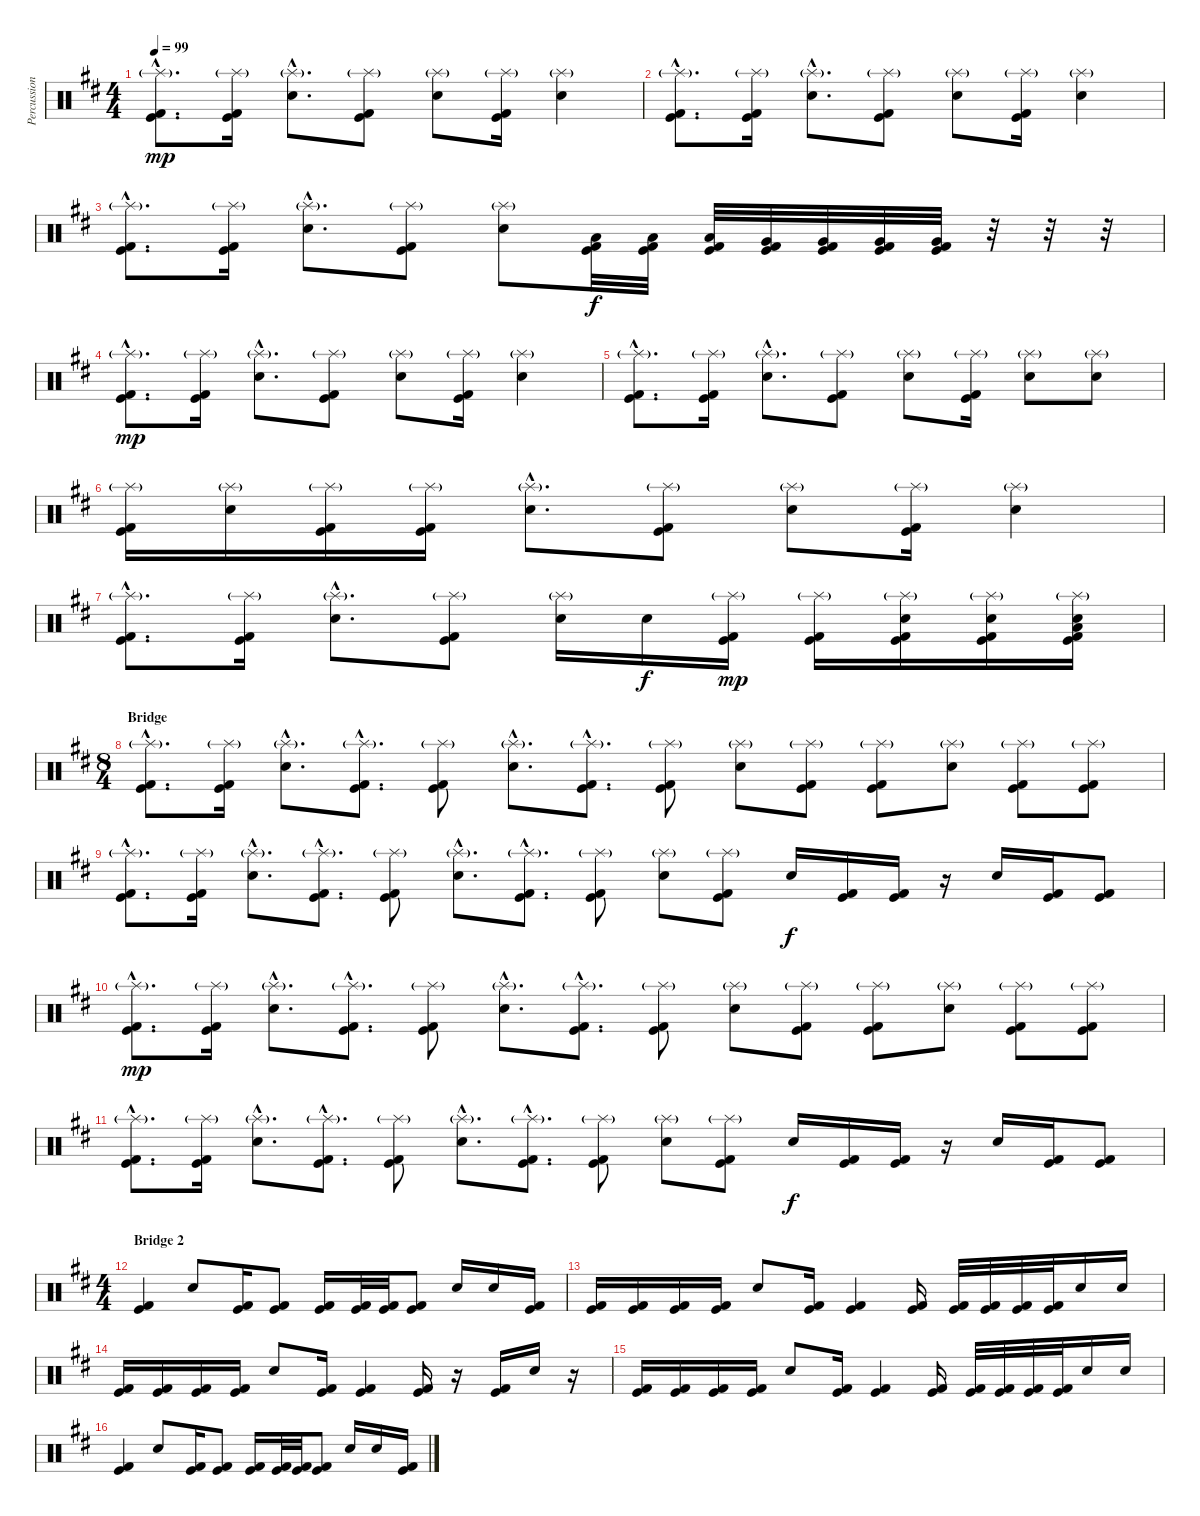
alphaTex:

\track ("Percussion" "Percussion") {instrument percussion}
\staff {score}
\articulation defaults
\ts (4 4)
\tempo 99
\clef neutral
\ks d
("Splash (hit)"{g hac} "Kick (hit)"{hac} "Kick (hit) 2"{hac}).8{d dy mp} ("Splash (hit)"{g} "Kick (hit)" "Kick (hit) 2").16 ("Splash (hit)"{g hac} "Electric Snare (hit)"{hac}).8{d} ("Splash (hit)"{g} "Kick (hit)" "Kick (hit) 2").8 ("Splash (hit)"{g} "Electric Snare (hit)").8 ("Splash (hit)"{g} "Kick (hit)" "Kick (hit) 2").16 ("Splash (hit)"{g} "Electric Snare (hit)").4 |
("Splash (hit)"{g hac} "Kick (hit)"{hac} "Kick (hit) 2"{hac}).8{d} ("Splash (hit)"{g} "Kick (hit)" "Kick (hit) 2").16 ("Splash (hit)"{g hac} "Electric Snare (hit)"{hac}).8{d} ("Splash (hit)"{g} "Kick (hit)" "Kick (hit) 2").8 ("Splash (hit)"{g} "Electric Snare (hit)").8 ("Splash (hit)"{g} "Kick (hit)" "Kick (hit) 2").16 ("Splash (hit)"{g} "Electric Snare (hit)").4 |
("Splash (hit)"{g hac} "Kick (hit)"{hac} "Kick (hit) 2"{hac}).8{d} ("Splash (hit)"{g} "Kick (hit)" "Kick (hit) 2").16 ("Splash (hit)"{g hac} "Electric Snare (hit)"{hac}).8{d} ("Splash (hit)"{g} "Kick (hit)" "Kick (hit) 2").8 ("Splash (hit)"{g} "Electric Snare (hit)").8 ("Low Tom (hit)" "Kick (hit)" "Kick (hit) 2").32{dy f} ("Low Tom (hit)" "Kick (hit)" "Kick (hit) 2").32 ("Low Tom (hit)" "Kick (hit)" "Kick (hit) 2").32 ("Very Low Tom (hit)" "Kick (hit)" "Kick (hit) 2").32 ("Very Low Tom (hit)" "Kick (hit)" "Kick (hit) 2").32 ("Very Low Tom (hit)" "Kick (hit)" "Kick (hit) 2").32 ("Very Low Tom (hit)" "Kick (hit)" "Kick (hit) 2").32 r.32 r.32 r.32 |
("Splash (hit)"{g hac} "Kick (hit)"{hac} "Kick (hit) 2"{hac}).8{d dy mp} ("Splash (hit)"{g} "Kick (hit)" "Kick (hit) 2").16 ("Splash (hit)"{g hac} "Electric Snare (hit)"{hac}).8{d} ("Splash (hit)"{g} "Kick (hit)" "Kick (hit) 2").8 ("Splash (hit)"{g} "Electric Snare (hit)").8 ("Splash (hit)"{g} "Kick (hit)" "Kick (hit) 2").16 ("Splash (hit)"{g} "Electric Snare (hit)").4 |
("Splash (hit)"{g hac} "Kick (hit)"{hac} "Kick (hit) 2"{hac}).8{d} ("Splash (hit)"{g} "Kick (hit)" "Kick (hit) 2").16 ("Splash (hit)"{g hac} "Electric Snare (hit)"{hac}).8{d} ("Splash (hit)"{g} "Kick (hit)" "Kick (hit) 2").8 ("Splash (hit)"{g} "Electric Snare (hit)").8 ("Splash (hit)"{g} "Kick (hit)" "Kick (hit) 2").16 ("Splash (hit)"{g} "Electric Snare (hit)").8 ("Splash (hit)"{g} "Electric Snare (hit)").8 |
("Splash (hit)"{g} "Kick (hit)" "Kick (hit) 2").16 ("Splash (hit)"{g} "Electric Snare (hit)").16 ("Splash (hit)"{g} "Kick (hit)" "Kick (hit) 2").16 ("Splash (hit)"{g} "Kick (hit)" "Kick (hit) 2").16 ("Splash (hit)"{g hac} "Electric Snare (hit)"{hac}).8{d} ("Splash (hit)"{g} "Kick (hit)" "Kick (hit) 2").8 ("Splash (hit)"{g} "Electric Snare (hit)").8 ("Splash (hit)"{g} "Kick (hit)" "Kick (hit) 2").16 ("Splash (hit)"{g} "Electric Snare (hit)").4 |
("Splash (hit)"{g hac} "Kick (hit)"{hac} "Kick (hit) 2"{hac}).8{d} ("Splash (hit)"{g} "Kick (hit)" "Kick (hit) 2").16 ("Splash (hit)"{g hac} "Electric Snare (hit)"{hac}).8{d} ("Splash (hit)"{g} "Kick (hit)" "Kick (hit) 2").8 ("Splash (hit)"{g} "Electric Snare (hit)").16 "Electric Snare (hit)".16{dy f} ("Splash (hit)"{g} "Kick (hit)" "Kick (hit) 2").16{dy mp} ("Splash (hit)"{g} "Kick (hit)" "Kick (hit) 2").16 ("Splash (hit)"{g} "Electric Snare (hit)" "Kick (hit)" "Kick (hit) 2").16 ("Splash (hit)"{g} "Electric Snare (hit)" "Kick (hit)" "Kick (hit) 2").16 ("Splash (hit)"{g} "Low Tom (hit)" "Electric Snare (hit)" "Kick (hit)" "Kick (hit) 2").16 |
\ts (8 4)
\section ("" "Bridge")
("Splash (hit)"{g hac} "Kick (hit)"{hac} "Kick (hit) 2"{hac}).8{d} ("Splash (hit)"{g} "Kick (hit)" "Kick (hit) 2").16 ("Splash (hit)"{g hac} "Electric Snare (hit)"{hac}).8{d} ("Splash (hit)"{g hac} "Kick (hit)"{hac} "Kick (hit) 2"{hac}).8{d} ("Splash (hit)"{g} "Kick (hit)" "Kick (hit) 2").8 ("Splash (hit)"{g hac} "Electric Snare (hit)"{hac}).8{d} ("Splash (hit)"{g hac} "Kick (hit)"{hac} "Kick (hit) 2"{hac}).8{d} ("Splash (hit)"{g} "Kick (hit)" "Kick (hit) 2").8 ("Splash (hit)"{g} "Electric Snare (hit)").8 ("Splash (hit)"{g} "Kick (hit)" "Kick (hit) 2").8 ("Splash (hit)"{g} "Kick (hit)" "Kick (hit) 2").8 ("Splash (hit)"{g} "Electric Snare (hit)").8 ("Splash (hit)"{g} "Kick (hit)" "Kick (hit) 2").8 ("Splash (hit)"{g} "Kick (hit)" "Kick (hit) 2").8 |
("Splash (hit)"{g hac} "Kick (hit)"{hac} "Kick (hit) 2"{hac}).8{d} ("Splash (hit)"{g} "Kick (hit)" "Kick (hit) 2").16 ("Splash (hit)"{g hac} "Electric Snare (hit)"{hac}).8{d} ("Splash (hit)"{g hac} "Kick (hit)"{hac} "Kick (hit) 2"{hac}).8{d} ("Splash (hit)"{g} "Kick (hit)" "Kick (hit) 2").8 ("Splash (hit)"{g hac} "Electric Snare (hit)"{hac}).8{d} ("Splash (hit)"{g hac} "Kick (hit)"{hac} "Kick (hit) 2"{hac}).8{d} ("Splash (hit)"{g} "Kick (hit)" "Kick (hit) 2").8 ("Splash (hit)"{g} "Electric Snare (hit)").8 ("Splash (hit)"{g} "Kick (hit)" "Kick (hit) 2").8 "Electric Snare (hit)".16{dy f} ("Kick (hit)" "Kick (hit) 2").16 ("Kick (hit)" "Kick (hit) 2").16 r.16 "Electric Snare (hit)".16 ("Kick (hit)" "Kick (hit) 2").16 ("Kick (hit)" "Kick (hit) 2").8 |
("Splash (hit)"{g hac} "Kick (hit)"{hac} "Kick (hit) 2"{hac}).8{d dy mp} ("Splash (hit)"{g} "Kick (hit)" "Kick (hit) 2").16 ("Splash (hit)"{g hac} "Electric Snare (hit)"{hac}).8{d} ("Splash (hit)"{g hac} "Kick (hit)"{hac} "Kick (hit) 2"{hac}).8{d} ("Splash (hit)"{g} "Kick (hit)" "Kick (hit) 2").8 ("Splash (hit)"{g hac} "Electric Snare (hit)"{hac}).8{d} ("Splash (hit)"{g hac} "Kick (hit)"{hac} "Kick (hit) 2"{hac}).8{d} ("Splash (hit)"{g} "Kick (hit)" "Kick (hit) 2").8 ("Splash (hit)"{g} "Electric Snare (hit)").8 ("Splash (hit)"{g} "Kick (hit)" "Kick (hit) 2").8 ("Splash (hit)"{g} "Kick (hit)" "Kick (hit) 2").8 ("Splash (hit)"{g} "Electric Snare (hit)").8 ("Splash (hit)"{g} "Kick (hit)" "Kick (hit) 2").8 ("Splash (hit)"{g} "Kick (hit)" "Kick (hit) 2").8 |
("Splash (hit)"{g hac} "Kick (hit)"{hac} "Kick (hit) 2"{hac}).8{d} ("Splash (hit)"{g} "Kick (hit)" "Kick (hit) 2").16 ("Splash (hit)"{g hac} "Electric Snare (hit)"{hac}).8{d} ("Splash (hit)"{g hac} "Kick (hit)"{hac} "Kick (hit) 2"{hac}).8{d} ("Splash (hit)"{g} "Kick (hit)" "Kick (hit) 2").8 ("Splash (hit)"{g hac} "Electric Snare (hit)"{hac}).8{d} ("Splash (hit)"{g hac} "Kick (hit)"{hac} "Kick (hit) 2"{hac}).8{d} ("Splash (hit)"{g} "Kick (hit)" "Kick (hit) 2").8 ("Splash (hit)"{g} "Electric Snare (hit)").8 ("Splash (hit)"{g} "Kick (hit)" "Kick (hit) 2").8 "Electric Snare (hit)".16{dy f} ("Kick (hit)" "Kick (hit) 2").16 ("Kick (hit)" "Kick (hit) 2").16 r.16 "Electric Snare (hit)".16 ("Kick (hit)" "Kick (hit) 2").16 ("Kick (hit)" "Kick (hit) 2").8 |
\ts (4 4)
\section ("" "Bridge 2")
("Kick (hit)" "Kick (hit) 2").4 "Electric Snare (hit)".8 ("Kick (hit)" "Kick (hit) 2").16 ("Kick (hit)" "Kick (hit) 2").8 ("Kick (hit)" "Kick (hit) 2").16 ("Kick (hit)" "Kick (hit) 2").32 ("Kick (hit)" "Kick (hit) 2").32 ("Kick (hit)" "Kick (hit) 2").8 "Electric Snare (hit)".16 "Electric Snare (hit)".16 ("Kick (hit)" "Kick (hit) 2").16 |
("Kick (hit)" "Kick (hit) 2").16 ("Kick (hit)" "Kick (hit) 2").16 ("Kick (hit)" "Kick (hit) 2").16 ("Kick (hit)" "Kick (hit) 2").16 "Electric Snare (hit)".8 ("Kick (hit)" "Kick (hit) 2").16 ("Kick (hit)" "Kick (hit) 2").4 ("Kick (hit)" "Kick (hit) 2").16 ("Kick (hit)" "Kick (hit) 2").32 ("Kick (hit)" "Kick (hit) 2").32 ("Kick (hit)" "Kick (hit) 2").32 ("Kick (hit) 2" "Kick (hit)").32 "Electric Snare (hit)".16 "Electric Snare (hit)".16 |
("Kick (hit)" "Kick (hit) 2").16 ("Kick (hit)" "Kick (hit) 2").16 ("Kick (hit)" "Kick (hit) 2").16 ("Kick (hit)" "Kick (hit) 2").16 "Electric Snare (hit)".8 ("Kick (hit)" "Kick (hit) 2").16 ("Kick (hit)" "Kick (hit) 2").4 ("Kick (hit)" "Kick (hit) 2").16 r.16 ("Kick (hit) 2" "Kick (hit)").16 "Electric Snare (hit)".16 r.16 |
("Kick (hit)" "Kick (hit) 2").16 ("Kick (hit)" "Kick (hit) 2").16 ("Kick (hit)" "Kick (hit) 2").16 ("Kick (hit)" "Kick (hit) 2").16 "Electric Snare (hit)".8 ("Kick (hit)" "Kick (hit) 2").16 ("Kick (hit)" "Kick (hit) 2").4 ("Kick (hit)" "Kick (hit) 2").16 ("Kick (hit)" "Kick (hit) 2").32 ("Kick (hit)" "Kick (hit) 2").32 ("Kick (hit)" "Kick (hit) 2").32 ("Kick (hit) 2" "Kick (hit)").32 "Electric Snare (hit)".16 "Electric Snare (hit)".16 |
("Kick (hit)" "Kick (hit) 2").4 "Electric Snare (hit)".8 ("Kick (hit)" "Kick (hit) 2").16 ("Kick (hit)" "Kick (hit) 2").8 ("Kick (hit)" "Kick (hit) 2").16 ("Kick (hit)" "Kick (hit) 2").32 ("Kick (hit)" "Kick (hit) 2").32 ("Kick (hit)" "Kick (hit) 2").8 "Electric Snare (hit)".16 "Electric Snare (hit)".16 ("Kick (hit)" "Kick (hit) 2").16
